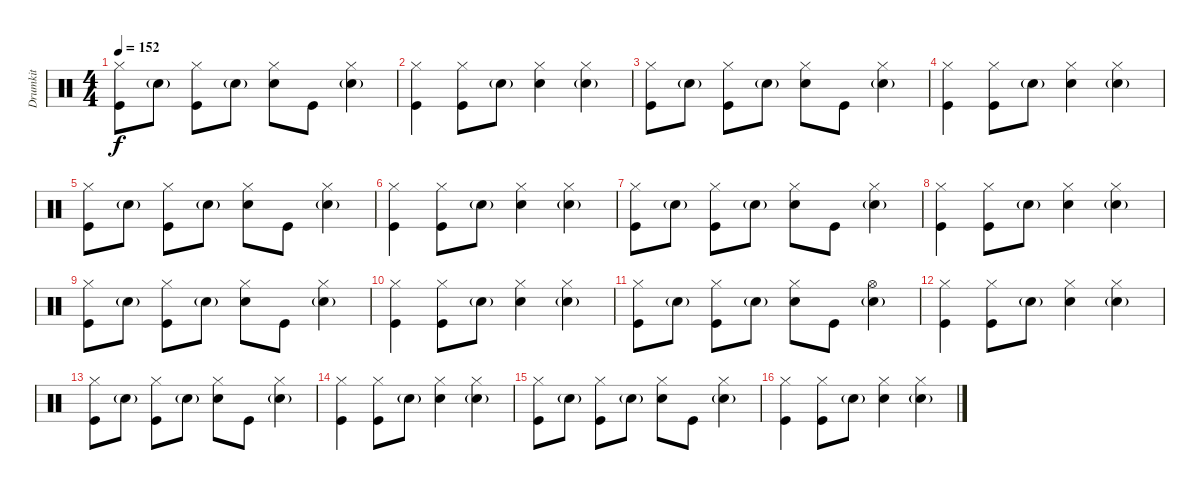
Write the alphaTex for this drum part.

\track ("Drumkit" "Drumkit") {instrument percussion}
\staff {score}
\articulation defaults
\ts (4 4)
\tempo 152
\clef neutral
\ks c
("Kick (hit)" "Hi-Hat (closed)").8{dy f} "Snare (hit) 2"{g}.8 ("Hi-Hat (closed)" "Kick (hit)").8 "Snare (hit) 2"{g}.8 ("Hi-Hat (closed)" "Snare (hit) 2").8 "Kick (hit)".8 ("Hi-Hat (closed)" "Snare (hit) 2"{g}).4 |
("Kick (hit)" "Hi-Hat (closed)").4 ("Hi-Hat (closed)" "Kick (hit)").8 "Snare (hit) 2"{g}.8 ("Hi-Hat (closed)" "Snare (hit) 2").4 ("Hi-Hat (closed)" "Snare (hit) 2"{g}).4 |
("Kick (hit)" "Hi-Hat (closed)").8 "Snare (hit) 2"{g}.8 ("Hi-Hat (closed)" "Kick (hit)").8 "Snare (hit) 2"{g}.8 ("Hi-Hat (closed)" "Snare (hit) 2").8 "Kick (hit)".8 ("Hi-Hat (closed)" "Snare (hit) 2"{g}).4 |
("Kick (hit)" "Hi-Hat (closed)").4 ("Hi-Hat (closed)" "Kick (hit)").8 "Snare (hit) 2"{g}.8 ("Hi-Hat (closed)" "Snare (hit) 2").4 ("Hi-Hat (closed)" "Snare (hit) 2"{g}).4 |
("Kick (hit)" "Hi-Hat (closed)").8 "Snare (hit) 2"{g}.8 ("Hi-Hat (closed)" "Kick (hit)").8 "Snare (hit) 2"{g}.8 ("Hi-Hat (closed)" "Snare (hit) 2").8 "Kick (hit)".8 ("Hi-Hat (closed)" "Snare (hit) 2"{g}).4 |
("Kick (hit)" "Hi-Hat (closed)").4 ("Hi-Hat (closed)" "Kick (hit)").8 "Snare (hit) 2"{g}.8 ("Hi-Hat (closed)" "Snare (hit) 2").4 ("Hi-Hat (closed)" "Snare (hit) 2"{g}).4 |
("Kick (hit)" "Hi-Hat (closed)").8 "Snare (hit) 2"{g}.8 ("Hi-Hat (closed)" "Kick (hit)").8 "Snare (hit) 2"{g}.8 ("Hi-Hat (closed)" "Snare (hit) 2").8 "Kick (hit)".8 ("Hi-Hat (closed)" "Snare (hit) 2"{g}).4 |
("Kick (hit)" "Hi-Hat (closed)").4 ("Hi-Hat (closed)" "Kick (hit)").8 "Snare (hit) 2"{g}.8 ("Hi-Hat (closed)" "Snare (hit) 2").4 ("Hi-Hat (closed)" "Snare (hit) 2"{g}).4 |
("Kick (hit)" "Hi-Hat (closed)").8 "Snare (hit) 2"{g}.8 ("Hi-Hat (closed)" "Kick (hit)").8 "Snare (hit) 2"{g}.8 ("Hi-Hat (closed)" "Snare (hit) 2").8 "Kick (hit)".8 ("Hi-Hat (closed)" "Snare (hit) 2"{g}).4 |
("Kick (hit)" "Hi-Hat (closed)").4 ("Hi-Hat (closed)" "Kick (hit)").8 "Snare (hit) 2"{g}.8 ("Hi-Hat (closed)" "Snare (hit) 2").4 ("Hi-Hat (closed)" "Snare (hit) 2"{g}).4 |
("Kick (hit)" "Hi-Hat (closed)").8 "Snare (hit) 2"{g}.8 ("Hi-Hat (closed)" "Kick (hit)").8 "Snare (hit) 2"{g}.8 ("Hi-Hat (closed)" "Snare (hit) 2").8 "Kick (hit)".8 ("Hi-Hat (open)" "Snare (hit) 2"{g}).4 |
("Kick (hit)" "Hi-Hat (closed)").4 ("Hi-Hat (closed)" "Kick (hit)").8 "Snare (hit) 2"{g}.8 ("Hi-Hat (closed)" "Snare (hit) 2").4 ("Hi-Hat (closed)" "Snare (hit) 2"{g}).4 |
("Kick (hit)" "Hi-Hat (closed)").8 "Snare (hit) 2"{g}.8 ("Hi-Hat (closed)" "Kick (hit)").8 "Snare (hit) 2"{g}.8 ("Hi-Hat (closed)" "Snare (hit) 2").8 "Kick (hit)".8 ("Hi-Hat (closed)" "Snare (hit) 2"{g}).4 |
("Kick (hit)" "Hi-Hat (closed)").4 ("Hi-Hat (closed)" "Kick (hit)").8 "Snare (hit) 2"{g}.8 ("Hi-Hat (closed)" "Snare (hit) 2").4 ("Hi-Hat (closed)" "Snare (hit) 2"{g}).4 |
("Kick (hit)" "Hi-Hat (closed)").8 "Snare (hit) 2"{g}.8 ("Hi-Hat (closed)" "Kick (hit)").8 "Snare (hit) 2"{g}.8 ("Hi-Hat (closed)" "Snare (hit) 2").8 "Kick (hit)".8 ("Hi-Hat (closed)" "Snare (hit) 2"{g}).4 |
("Kick (hit)" "Hi-Hat (closed)").4 ("Hi-Hat (closed)" "Kick (hit)").8 "Snare (hit) 2"{g}.8 ("Hi-Hat (closed)" "Snare (hit) 2").4 ("Hi-Hat (closed)" "Snare (hit) 2"{g}).4
